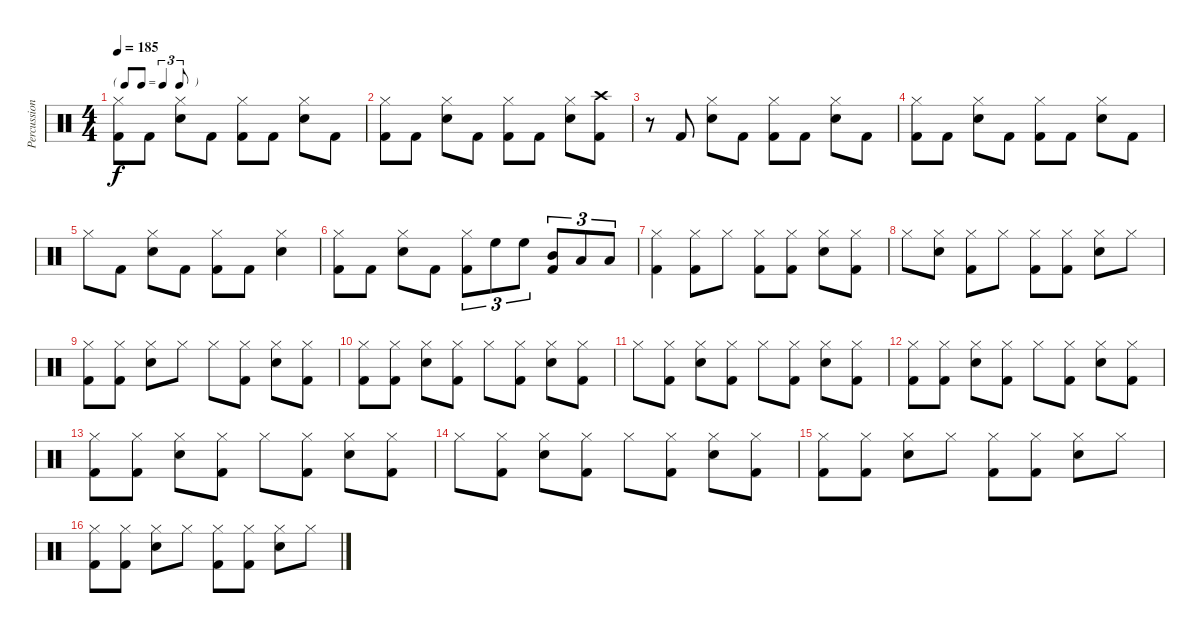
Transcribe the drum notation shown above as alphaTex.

\track ("Percussion" "Percussion") {instrument percussion}
\staff {score}
\articulation defaults
\ts (4 4)
\tf triplet8th
\tempo 185
\clef neutral
\ks c
("Kick (hit) 2" "Hi-Hat (closed)").8{dy f} "Kick (hit) 2".8 ("Snare (hit) 2" "Hi-Hat (closed)").8 "Kick (hit) 2".8 ("Kick (hit) 2" "Hi-Hat (closed)").8 "Kick (hit) 2".8 ("Snare (hit) 2" "Hi-Hat (closed)").8 "Kick (hit) 2".8 |
("Kick (hit) 2" "Hi-Hat (closed)").8 "Kick (hit) 2".8 ("Snare (hit) 2" "Hi-Hat (closed)").8 "Kick (hit) 2".8 ("Kick (hit) 2" "Hi-Hat (closed)").8 "Kick (hit) 2".8 ("Snare (hit) 2" "Hi-Hat (closed)").8 ("Kick (hit) 2" "Crash high (hit)").8 |
r.8 "Kick (hit) 2".8 ("Snare (hit) 2" "Hi-Hat (closed)").8 "Kick (hit) 2".8 ("Kick (hit) 2" "Hi-Hat (closed)").8 "Kick (hit) 2".8 ("Snare (hit) 2" "Hi-Hat (closed)").8 "Kick (hit) 2".8 |
("Kick (hit) 2" "Hi-Hat (closed)").8 "Kick (hit) 2".8 ("Snare (hit) 2" "Hi-Hat (closed)").8 "Kick (hit) 2".8 ("Kick (hit) 2" "Hi-Hat (closed)").8 "Kick (hit) 2".8 ("Snare (hit) 2" "Hi-Hat (closed)").8 "Kick (hit) 2".8 |
"Hi-Hat (closed)".8 "Kick (hit) 2".8 ("Snare (hit) 2" "Hi-Hat (closed)").8 "Kick (hit) 2".8 ("Kick (hit) 2" "Hi-Hat (closed)").8 "Kick (hit) 2".8 ("Snare (hit) 2" "Hi-Hat (closed)").4 |
("Kick (hit) 2" "Hi-Hat (closed)").8 "Kick (hit) 2".8 ("Snare (hit) 2" "Hi-Hat (closed)").8 "Kick (hit) 2".8 ("Kick (hit) 2" "Hi-Hat (closed)").8{tu (3 2)} "High Floor Tom (hit)".8{tu (3 2)} "High Floor Tom (hit)".8{tu (3 2)} ("Kick (hit) 2" "Mid Tom (hit)").8{tu (3 2)} "Low Tom (hit)".8{tu (3 2)} "Low Tom (hit)".8{tu (3 2)} |
("Kick (hit) 2" "Hi-Hat (closed)").4 ("Kick (hit) 2" "Hi-Hat (closed)").8 "Hi-Hat (closed)".8 ("Kick (hit) 2" "Hi-Hat (closed)").8 ("Kick (hit) 2" "Hi-Hat (closed)").8 ("Snare (hit) 2" "Hi-Hat (closed)").8 ("Kick (hit) 2" "Hi-Hat (closed)").8 |
"Hi-Hat (closed)".8 ("Snare (hit) 2" "Hi-Hat (closed)").8 ("Kick (hit) 2" "Hi-Hat (closed)").8 "Hi-Hat (closed)".8 ("Kick (hit) 2" "Hi-Hat (closed)").8 ("Kick (hit) 2" "Hi-Hat (closed)").8 ("Snare (hit) 2" "Hi-Hat (closed)").8 "Hi-Hat (closed)".8 |
("Kick (hit) 2" "Hi-Hat (closed)").8 ("Kick (hit) 2" "Hi-Hat (closed)").8 ("Snare (hit) 2" "Hi-Hat (closed)").8 "Hi-Hat (closed)".8 "Hi-Hat (closed)".8 ("Kick (hit) 2" "Hi-Hat (closed)").8 ("Snare (hit) 2" "Hi-Hat (closed)").8 ("Kick (hit) 2" "Hi-Hat (closed)").8 |
("Kick (hit) 2" "Hi-Hat (closed)").8 ("Kick (hit) 2" "Hi-Hat (closed)").8 ("Snare (hit) 2" "Hi-Hat (closed)").8 ("Kick (hit) 2" "Hi-Hat (closed)").8 "Hi-Hat (closed)".8 ("Kick (hit) 2" "Hi-Hat (closed)").8 ("Snare (hit) 2" "Hi-Hat (closed)").8 ("Kick (hit) 2" "Hi-Hat (closed)").8 |
"Hi-Hat (closed)".8 ("Kick (hit) 2" "Hi-Hat (closed)").8 ("Snare (hit) 2" "Hi-Hat (closed)").8 ("Kick (hit) 2" "Hi-Hat (closed)").8 "Hi-Hat (closed)".8 ("Kick (hit) 2" "Hi-Hat (closed)").8 ("Snare (hit) 2" "Hi-Hat (closed)").8 ("Kick (hit) 2" "Hi-Hat (closed)").8 |
("Kick (hit) 2" "Hi-Hat (closed)").8 ("Kick (hit) 2" "Hi-Hat (closed)").8 ("Snare (hit) 2" "Hi-Hat (closed)").8 ("Kick (hit) 2" "Hi-Hat (closed)").8 "Hi-Hat (closed)".8 ("Kick (hit) 2" "Hi-Hat (closed)").8 ("Snare (hit) 2" "Hi-Hat (closed)").8 ("Kick (hit) 2" "Hi-Hat (closed)").8 |
("Kick (hit) 2" "Hi-Hat (closed)").8 ("Kick (hit) 2" "Hi-Hat (closed)").8 ("Snare (hit) 2" "Hi-Hat (closed)").8 ("Kick (hit) 2" "Hi-Hat (closed)").8 "Hi-Hat (closed)".8 ("Kick (hit) 2" "Hi-Hat (closed)").8 ("Snare (hit) 2" "Hi-Hat (closed)").8 ("Kick (hit) 2" "Hi-Hat (closed)").8 |
"Hi-Hat (closed)".8 ("Kick (hit) 2" "Hi-Hat (closed)").8 ("Snare (hit) 2" "Hi-Hat (closed)").8 ("Kick (hit) 2" "Hi-Hat (closed)").8 "Hi-Hat (closed)".8 ("Kick (hit) 2" "Hi-Hat (closed)").8 ("Snare (hit) 2" "Hi-Hat (closed)").8 ("Kick (hit) 2" "Hi-Hat (closed)").8 |
("Kick (hit) 2" "Hi-Hat (closed)").8 ("Kick (hit) 2" "Hi-Hat (closed)").8 ("Snare (hit) 2" "Hi-Hat (closed)").8 "Hi-Hat (closed)".8 ("Kick (hit) 2" "Hi-Hat (closed)").8 ("Kick (hit) 2" "Hi-Hat (closed)").8 ("Snare (hit) 2" "Hi-Hat (closed)").8 "Hi-Hat (closed)".8 |
("Kick (hit) 2" "Hi-Hat (closed)").8 ("Kick (hit) 2" "Hi-Hat (closed)").8 ("Snare (hit) 2" "Hi-Hat (closed)").8 "Hi-Hat (closed)".8 ("Kick (hit) 2" "Hi-Hat (closed)").8 ("Kick (hit) 2" "Hi-Hat (closed)").8 ("Snare (hit) 2" "Hi-Hat (closed)").8 "Hi-Hat (closed)".8
